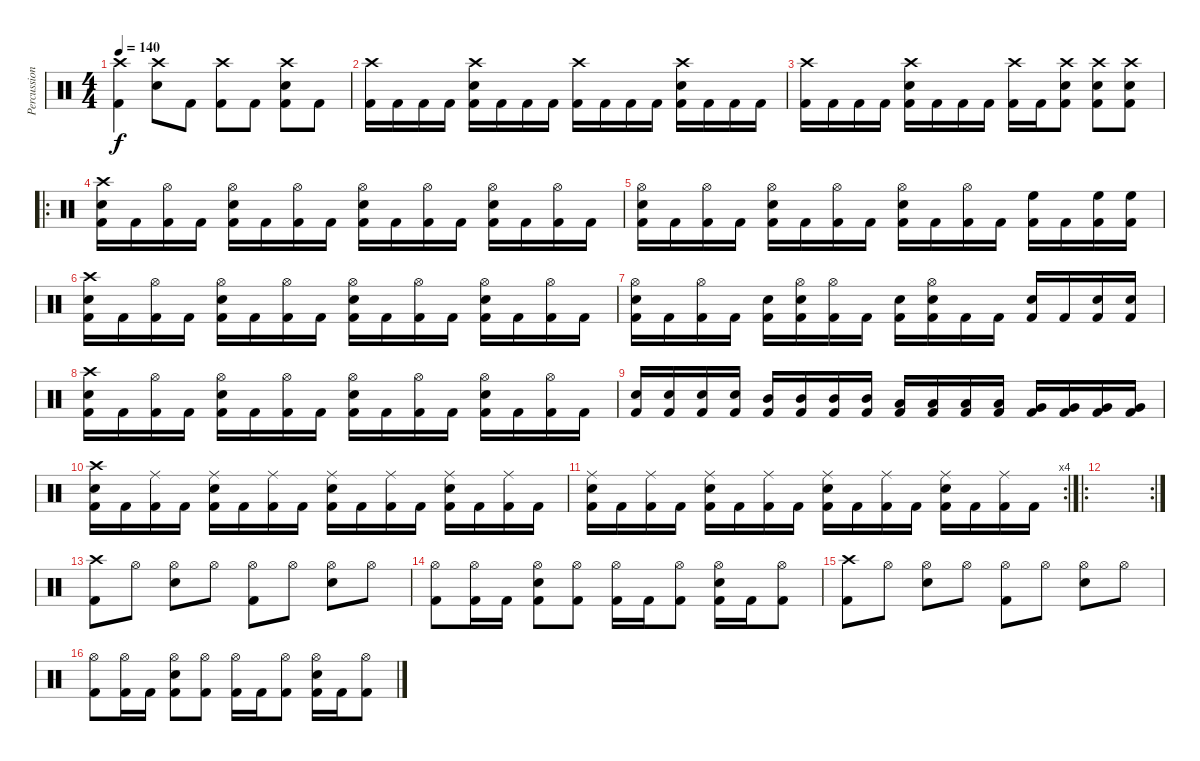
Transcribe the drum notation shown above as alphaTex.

\track ("Percussion" "Percussion") {instrument percussion}
\staff {score}
\articulation defaults
\ts (4 4)
\tempo 140
\clef neutral
\ks c
("Crash high (hit)" "Kick (hit) 2").4{dy f} ("Crash high (hit)" "Electric Snare (hit)").8 "Kick (hit) 2".8 ("Crash high (hit)" "Kick (hit) 2").8 "Kick (hit) 2".8 ("Crash high (hit)" "Electric Snare (hit)" "Kick (hit) 2").8 "Kick (hit) 2".8 |
("Crash high (hit)" "Kick (hit) 2").16 "Kick (hit) 2".16 "Kick (hit) 2".16 "Kick (hit) 2".16 ("Crash high (hit)" "Electric Snare (hit)" "Kick (hit) 2").16 "Kick (hit) 2".16 "Kick (hit) 2".16 "Kick (hit) 2".16 ("Crash high (hit)" "Kick (hit) 2").16 "Kick (hit) 2".16 "Kick (hit) 2".16 "Kick (hit) 2".16 ("Crash high (hit)" "Electric Snare (hit)" "Kick (hit) 2").16 "Kick (hit) 2".16 "Kick (hit) 2".16 "Kick (hit) 2".16 |
("Crash high (hit)" "Kick (hit) 2").16 "Kick (hit) 2".16 "Kick (hit) 2".16 "Kick (hit) 2".16 ("Crash high (hit)" "Electric Snare (hit)" "Kick (hit) 2").16 "Kick (hit) 2".16 "Kick (hit) 2".16 "Kick (hit) 2".16 ("Crash high (hit)" "Kick (hit) 2").16 "Kick (hit) 2".16 ("Crash high (hit)" "Electric Snare (hit)" "Kick (hit) 2").8 ("Crash high (hit)" "Electric Snare (hit)" "Kick (hit) 2").8 ("Crash high (hit)" "Electric Snare (hit)" "Kick (hit) 2").8 |
\ro
("Crash high (hit)" "Electric Snare (hit)" "Kick (hit) 2").16 "Kick (hit) 2".16 ("Hi-Hat (open)" "Kick (hit) 2").16 "Kick (hit) 2".16 ("Hi-Hat (open)" "Electric Snare (hit)" "Kick (hit) 2").16 "Kick (hit) 2".16 ("Hi-Hat (open)" "Kick (hit) 2").16 "Kick (hit) 2".16 ("Hi-Hat (open)" "Electric Snare (hit)" "Kick (hit) 2").16 "Kick (hit) 2".16 ("Hi-Hat (open)" "Kick (hit) 2").16 "Kick (hit) 2".16 ("Hi-Hat (open)" "Electric Snare (hit)" "Kick (hit) 2").16 "Kick (hit) 2".16 ("Hi-Hat (open)" "Kick (hit) 2").16 "Kick (hit) 2".16 |
("Hi-Hat (open)" "Electric Snare (hit)" "Kick (hit) 2").16 "Kick (hit) 2".16 ("Hi-Hat (open)" "Kick (hit) 2").16 "Kick (hit) 2".16 ("Hi-Hat (open)" "Electric Snare (hit)" "Kick (hit) 2").16 "Kick (hit) 2".16 ("Hi-Hat (open)" "Kick (hit) 2").16 "Kick (hit) 2".16 ("Hi-Hat (open)" "Electric Snare (hit)" "Kick (hit) 2").16 "Kick (hit) 2".16 ("Hi-Hat (open)" "Kick (hit) 2").16 "Kick (hit) 2".16 ("High Floor Tom (hit)" "Kick (hit) 2").16 "Kick (hit) 2".16 ("High Floor Tom (hit)" "Kick (hit) 2").16 ("High Floor Tom (hit)" "Kick (hit) 2").16 |
("Crash high (hit)" "Electric Snare (hit)" "Kick (hit) 2").16 "Kick (hit) 2".16 ("Hi-Hat (open)" "Kick (hit) 2").16 "Kick (hit) 2".16 ("Hi-Hat (open)" "Electric Snare (hit)" "Kick (hit) 2").16 "Kick (hit) 2".16 ("Hi-Hat (open)" "Kick (hit) 2").16 "Kick (hit) 2".16 ("Hi-Hat (open)" "Electric Snare (hit)" "Kick (hit) 2").16 "Kick (hit) 2".16 ("Hi-Hat (open)" "Kick (hit) 2").16 "Kick (hit) 2".16 ("Hi-Hat (open)" "Electric Snare (hit)" "Kick (hit) 2").16 "Kick (hit) 2".16 ("Hi-Hat (open)" "Kick (hit) 2").16 "Kick (hit) 2".16 |
("Hi-Hat (open)" "Electric Snare (hit)" "Kick (hit) 2").16 "Kick (hit) 2".16 ("Hi-Hat (open)" "Kick (hit) 2").16 "Kick (hit) 2".16 ("Electric Snare (hit)" "Kick (hit) 2").16 ("Hi-Hat (open)" "Electric Snare (hit)" "Kick (hit) 2").16 ("Hi-Hat (open)" "Kick (hit) 2").16 "Kick (hit) 2".16 ("Electric Snare (hit)" "Kick (hit) 2").16 ("Hi-Hat (open)" "Electric Snare (hit)" "Kick (hit) 2").16 "Kick (hit) 2".16 "Kick (hit) 2".16 ("Electric Snare (hit)" "Kick (hit) 2").16 "Kick (hit) 2".16 ("Electric Snare (hit)" "Kick (hit) 2").16 ("Electric Snare (hit)" "Kick (hit) 2").16 |
("Crash high (hit)" "Electric Snare (hit)" "Kick (hit) 2").16 "Kick (hit) 2".16 ("Hi-Hat (open)" "Kick (hit) 2").16 "Kick (hit) 2".16 ("Hi-Hat (open)" "Electric Snare (hit)" "Kick (hit) 2").16 "Kick (hit) 2".16 ("Hi-Hat (open)" "Kick (hit) 2").16 "Kick (hit) 2".16 ("Hi-Hat (open)" "Electric Snare (hit)" "Kick (hit) 2").16 "Kick (hit) 2".16 ("Hi-Hat (open)" "Kick (hit) 2").16 "Kick (hit) 2".16 ("Hi-Hat (open)" "Electric Snare (hit)" "Kick (hit) 2").16 "Kick (hit) 2".16 ("Hi-Hat (open)" "Kick (hit) 2").16 "Kick (hit) 2".16 |
("Electric Snare (hit)" "Kick (hit) 2").16 ("Electric Snare (hit)" "Kick (hit) 2").16 ("Electric Snare (hit)" "Kick (hit) 2").16 ("Electric Snare (hit)" "Kick (hit) 2").16 ("Mid Tom (hit)" "Kick (hit) 2").16 ("Mid Tom (hit)" "Kick (hit) 2").16 ("Mid Tom (hit)" "Kick (hit) 2").16 ("Mid Tom (hit)" "Kick (hit) 2").16 ("Low Tom (hit)" "Kick (hit) 2").16 ("Low Tom (hit)" "Kick (hit) 2").16 ("Low Tom (hit)" "Kick (hit) 2").16 ("Low Tom (hit)" "Kick (hit) 2").16 ("Very Low Tom (hit)" "Kick (hit) 2").16 ("Very Low Tom (hit)" "Kick (hit) 2").16 ("Very Low Tom (hit)" "Kick (hit) 2").16 ("Very Low Tom (hit)" "Kick (hit) 2").16 |
("Crash high (hit)" "Electric Snare (hit)" "Kick (hit) 2").16 "Kick (hit) 2".16 ("Ride (middle)" "Kick (hit) 2").16 "Kick (hit) 2".16 ("Ride (middle)" "Electric Snare (hit)" "Kick (hit) 2").16 "Kick (hit) 2".16 ("Ride (middle)" "Kick (hit) 2").16 "Kick (hit) 2".16 ("Ride (middle)" "Electric Snare (hit)" "Kick (hit) 2").16 "Kick (hit) 2".16 ("Ride (middle)" "Kick (hit) 2").16 "Kick (hit) 2".16 ("Ride (middle)" "Electric Snare (hit)" "Kick (hit) 2").16 "Kick (hit) 2".16 ("Ride (middle)" "Kick (hit) 2").16 "Kick (hit) 2".16 |
\rc 4
("Ride (middle)" "Electric Snare (hit)" "Kick (hit) 2").16 "Kick (hit) 2".16 ("Ride (middle)" "Kick (hit) 2").16 "Kick (hit) 2".16 ("Ride (middle)" "Electric Snare (hit)" "Kick (hit) 2").16 "Kick (hit) 2".16 ("Ride (middle)" "Kick (hit) 2").16 "Kick (hit) 2".16 ("Ride (middle)" "Electric Snare (hit)" "Kick (hit) 2").16 "Kick (hit) 2".16 ("Ride (middle)" "Kick (hit) 2").16 "Kick (hit) 2".16 ("Ride (middle)" "Electric Snare (hit)" "Kick (hit) 2").16 "Kick (hit) 2".16 ("Ride (middle)" "Kick (hit) 2").16 "Kick (hit) 2".16 |
\ro
\rc 2
|
("Crash high (hit)" "Kick (hit) 2").8 "Hi-Hat (open)".8 ("Hi-Hat (open)" "Electric Snare (hit)").8 "Hi-Hat (open)".8 ("Hi-Hat (open)" "Kick (hit) 2").8 "Hi-Hat (open)".8 ("Hi-Hat (open)" "Electric Snare (hit)").8 "Hi-Hat (open)".8 |
("Hi-Hat (open)" "Kick (hit) 2").8 ("Hi-Hat (open)" "Kick (hit) 2").16 "Kick (hit) 2".16 ("Hi-Hat (open)" "Electric Snare (hit)" "Kick (hit) 2").8 ("Hi-Hat (open)" "Kick (hit) 2").8 ("Hi-Hat (open)" "Kick (hit) 2").16 "Kick (hit) 2".16 ("Hi-Hat (open)" "Kick (hit) 2").8 ("Hi-Hat (open)" "Electric Snare (hit)" "Kick (hit) 2").16 "Kick (hit) 2".16 ("Hi-Hat (open)" "Kick (hit) 2").8 |
("Crash high (hit)" "Kick (hit) 2").8 "Hi-Hat (open)".8 ("Hi-Hat (open)" "Electric Snare (hit)").8 "Hi-Hat (open)".8 ("Hi-Hat (open)" "Kick (hit) 2").8 "Hi-Hat (open)".8 ("Hi-Hat (open)" "Electric Snare (hit)").8 "Hi-Hat (open)".8 |
("Hi-Hat (open)" "Kick (hit) 2").8 ("Hi-Hat (open)" "Kick (hit) 2").16 "Kick (hit) 2".16 ("Hi-Hat (open)" "Electric Snare (hit)" "Kick (hit) 2").8 ("Hi-Hat (open)" "Kick (hit) 2").8 ("Hi-Hat (open)" "Kick (hit) 2").16 "Kick (hit) 2".16 ("Hi-Hat (open)" "Kick (hit) 2").8 ("Hi-Hat (open)" "Electric Snare (hit)" "Kick (hit) 2").16 "Kick (hit) 2".16 ("Hi-Hat (open)" "Kick (hit) 2").8
